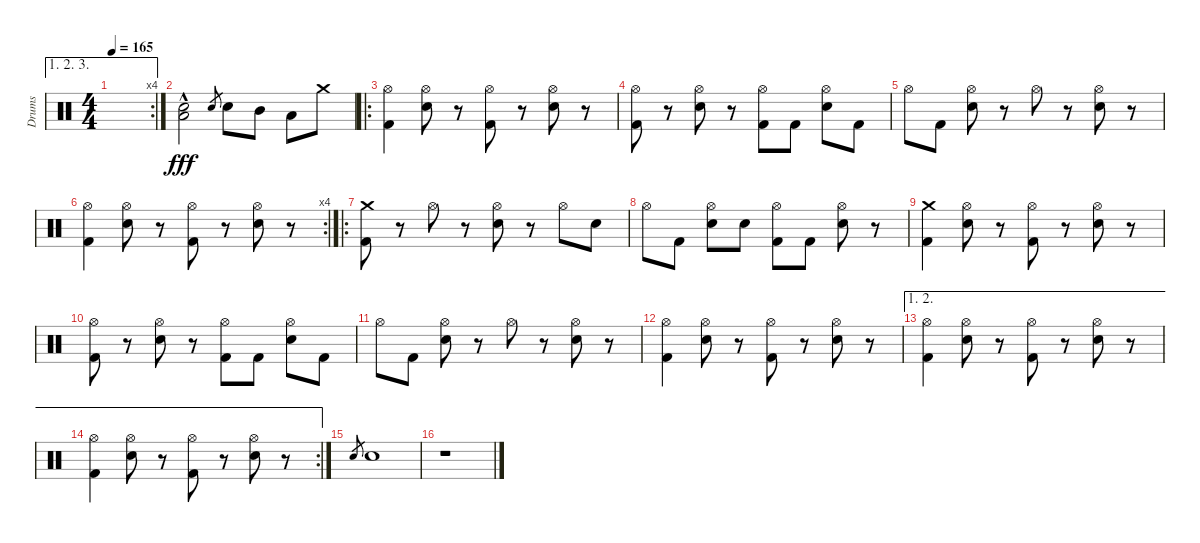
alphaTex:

\track ("Drums" "Drums") {instrument percussion}
\staff {score}
\articulation defaults
\ae (1 2 3)
\rc 4
\ts (4 4)
\tempo 165
\clef neutral
\ks c
|
("Snare (hit) 2"{hac} "Low Floor Tom (hit)").2{dy fff} "Snare (hit) 2".8{gr} "Snare (hit) 2".8 "Mid Tom (hit)".8 "Low Tom (hit)".8 "Crash medium (hit)".8 |
\ro
("Hi-Hat (open)" "Kick (hit) 2").4 ("Hi-Hat (open)" "Snare (hit) 2").8 r.8 ("Hi-Hat (open)" "Kick (hit) 2").8 r.8 ("Hi-Hat (open)" "Snare (hit) 2").8 r.8 |
("Hi-Hat (open)" "Kick (hit) 2").8 r.8 ("Hi-Hat (open)" "Snare (hit) 2").8 r.8 ("Hi-Hat (open)" "Kick (hit) 2").8 "Kick (hit) 2".8 ("Hi-Hat (open)" "Snare (hit) 2").8 "Kick (hit) 2".8 |
"Hi-Hat (open)".8 "Kick (hit) 2".8 ("Hi-Hat (open)" "Snare (hit) 2").8 r.8 "Hi-Hat (open)".8 r.8 ("Hi-Hat (open)" "Snare (hit) 2").8 r.8 |
\rc 4
("Hi-Hat (open)" "Kick (hit) 2").4 ("Hi-Hat (open)" "Snare (hit) 2").8 r.8 ("Hi-Hat (open)" "Kick (hit) 2").8 r.8 ("Hi-Hat (open)" "Snare (hit) 2").8 r.8 |
\ro
("Crash medium (hit)" "Kick (hit) 2").8 r.8 "Hi-Hat (open)".8 r.8 ("Hi-Hat (open)" "Snare (hit) 2").8 r.8 "Hi-Hat (open)".8 "Snare (hit) 2".8 |
"Hi-Hat (open)".8 "Kick (hit) 2".8 ("Hi-Hat (open)" "Snare (hit) 2").8 "Snare (hit) 2".8 ("Hi-Hat (open)" "Kick (hit) 2").8 "Kick (hit) 2".8 ("Hi-Hat (open)" "Snare (hit) 2").8 r.8 |
("Crash medium (hit)" "Kick (hit) 2").4 ("Hi-Hat (open)" "Snare (hit) 2").8 r.8 ("Hi-Hat (open)" "Kick (hit) 2").8 r.8 ("Hi-Hat (open)" "Snare (hit) 2").8 r.8 |
("Hi-Hat (open)" "Kick (hit) 2").8 r.8 ("Hi-Hat (open)" "Snare (hit) 2").8 r.8 ("Hi-Hat (open)" "Kick (hit) 2").8 "Kick (hit) 2".8 ("Hi-Hat (open)" "Snare (hit) 2").8 "Kick (hit) 2".8 |
"Hi-Hat (open)".8 "Kick (hit) 2".8 ("Hi-Hat (open)" "Snare (hit) 2").8 r.8 "Hi-Hat (open)".8 r.8 ("Hi-Hat (open)" "Snare (hit) 2").8 r.8 |
("Hi-Hat (open)" "Kick (hit) 2").4 ("Hi-Hat (open)" "Snare (hit) 2").8 r.8 ("Hi-Hat (open)" "Kick (hit) 2").8 r.8 ("Hi-Hat (open)" "Snare (hit) 2").8 r.8 |
\ae (1 2)
("Hi-Hat (open)" "Kick (hit) 2").4 ("Hi-Hat (open)" "Snare (hit) 2").8 r.8 ("Hi-Hat (open)" "Kick (hit) 2").8 r.8 ("Hi-Hat (open)" "Snare (hit) 2").8 r.8 |
\ae (1 2)
\rc 2
("Hi-Hat (open)" "Kick (hit) 2").4 ("Hi-Hat (open)" "Snare (hit) 2").8 r.8 ("Hi-Hat (open)" "Kick (hit) 2").8 r.8 ("Hi-Hat (open)" "Snare (hit) 2").8 r.8 |
"Snare (hit) 2".8{gr} "Snare (hit) 2".1 |
r.1
